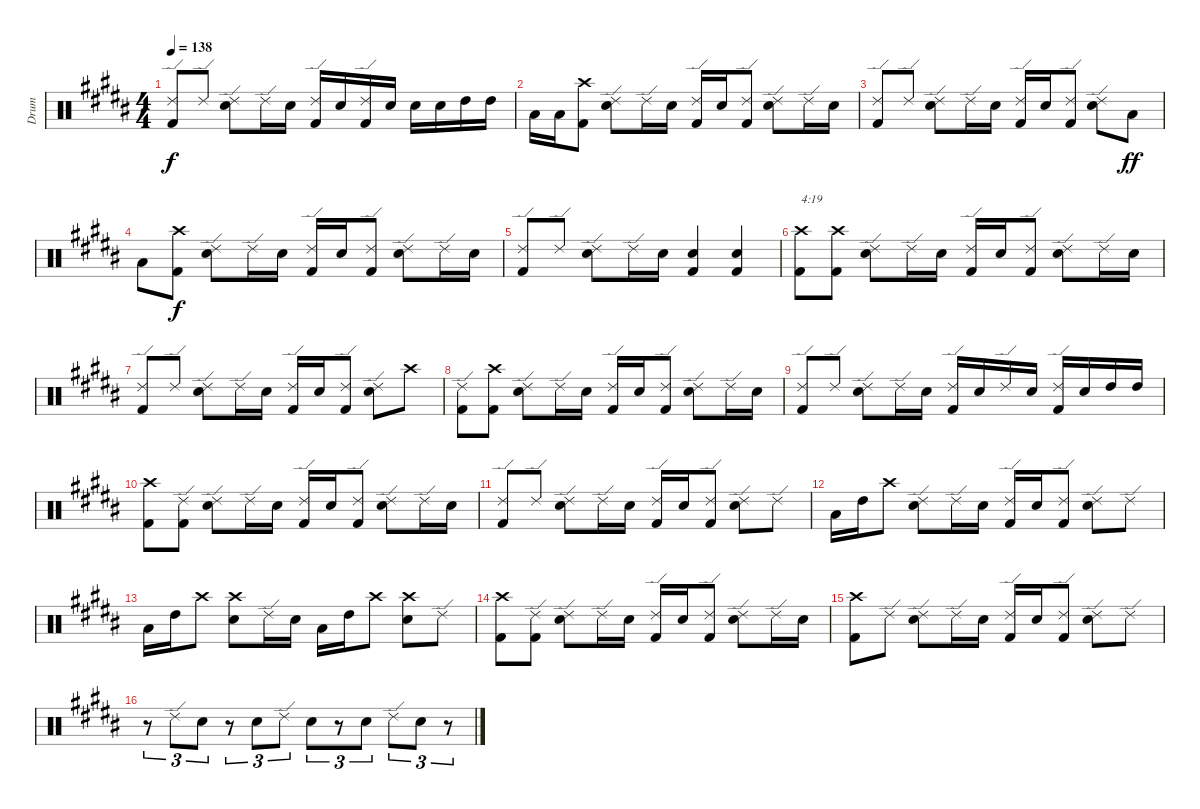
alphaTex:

\track ("Drum" "Drum") {instrument percussion}
\staff {score}
\articulation defaults
\ts (4 4)
\tempo 138
\clef neutral
\ks g#minor
("Ride (edge) 2" "Kick (hit) 2").8{dy f} "Ride (edge) 2".8 ("Ride (edge) 2" "Electric Snare (hit)").8 "Ride (edge) 2".16 "Electric Snare (hit)".16 ("Ride (edge) 2" "Kick (hit) 2").16 "Electric Snare (hit)".16 ("Ride (edge) 2" "Kick (hit) 2").16 "Electric Snare (hit)".16 "Electric Snare (hit)".16 "Electric Snare (hit)".16 "High Tom (hit)".16 "High Tom (hit)".16 |
\ks b "Low Floor Tom (hit)".16 "Low Floor Tom (hit)".16
("Crash high (hit)" "Kick (hit) 2").8 ("Ride (edge) 2" "Electric Snare (hit)").8 "Ride (edge) 2".16 "Electric Snare (hit)".16 ("Ride (edge) 2" "Kick (hit) 2").16 "Electric Snare (hit)".16 ("Ride (edge) 2" "Kick (hit) 2").8 ("Ride (edge) 2" "Electric Snare (hit)").8 "Ride (edge) 2".16 "Electric Snare (hit)".16 |
\ks g#minor
("Ride (edge) 2" "Kick (hit) 2").8 "Ride (edge) 2".8 ("Ride (edge) 2" "Electric Snare (hit)").8 "Ride (edge) 2".16 "Electric Snare (hit)".16 ("Ride (edge) 2" "Kick (hit) 2").16 "Electric Snare (hit)".16 ("Ride (edge) 2" "Kick (hit) 2").8 ("Ride (edge) 2" "Electric Snare (hit)").8 "Low Floor Tom (hit)".8{dy ff} |
"Low Floor Tom (hit)".8 ("Crash high (hit)" "Kick (hit) 2").8{dy f} ("Ride (edge) 2" "Electric Snare (hit)").8 "Ride (edge) 2".16 "Electric Snare (hit)".16 ("Ride (edge) 2" "Kick (hit) 2").16 "Electric Snare (hit)".16 ("Ride (edge) 2" "Kick (hit) 2").8 ("Ride (edge) 2" "Electric Snare (hit)").8 "Ride (edge) 2".16 "Electric Snare (hit)".16 |
("Ride (edge) 2" "Kick (hit) 2").8 "Ride (edge) 2".8 ("Ride (edge) 2" "Electric Snare (hit)").8 "Ride (edge) 2".16 "Electric Snare (hit)".16 ("Electric Snare (hit)" "Kick (hit) 2").4 ("Electric Snare (hit)" "Kick (hit) 2").4 |
\ks b
("Crash high (hit)" "Kick (hit) 2").8{txt "4:19"} ("Crash high (hit)" "Kick (hit) 2").8 ("Ride (edge) 2" "Electric Snare (hit)").8 "Ride (edge) 2".16 "Electric Snare (hit)".16 ("Ride (edge) 2" "Kick (hit) 2").16 "Electric Snare (hit)".16 ("Ride (edge) 2" "Kick (hit) 2").8 ("Ride (edge) 2" "Electric Snare (hit)").8 "Ride (edge) 2".16 "Electric Snare (hit)".16 |
\ks g#minor
("Ride (edge) 2" "Kick (hit) 2").8 "Ride (edge) 2".8 ("Ride (edge) 2" "Electric Snare (hit)").8 "Ride (edge) 2".16 "Electric Snare (hit)".16 ("Ride (edge) 2" "Kick (hit) 2").16 "Electric Snare (hit)".16 ("Ride (edge) 2" "Kick (hit) 2").8 ("Ride (edge) 2" "Electric Snare (hit)").8 "Crash high (hit)".8 |
\ks b
("Ride (edge) 2" "Kick (hit) 2").8 ("Crash high (hit)" "Kick (hit) 2").8 ("Ride (edge) 2" "Electric Snare (hit)").8 "Ride (edge) 2".16 "Electric Snare (hit)".16 ("Ride (edge) 2" "Kick (hit) 2").16 "Electric Snare (hit)".16 ("Ride (edge) 2" "Kick (hit) 2").8 ("Ride (edge) 2" "Electric Snare (hit)").8 "Ride (edge) 2".16 "Electric Snare (hit)".16 |
\ks g#minor
("Ride (edge) 2" "Kick (hit) 2").8 "Ride (edge) 2".8 ("Ride (edge) 2" "Electric Snare (hit)").8 "Ride (edge) 2".16 "Electric Snare (hit)".16 ("Ride (edge) 2" "Kick (hit) 2").16 "Electric Snare (hit)".16 "Ride (edge) 2".16 "Electric Snare (hit)".16 ("Ride (edge) 2" "Kick (hit) 2").16 "Electric Snare (hit)".16 "High Tom (hit)".16 "High Tom (hit)".16 |
\ks b
("Crash high (hit)" "Kick (hit) 2").8 ("Ride (edge) 2" "Kick (hit) 2").8 ("Ride (edge) 2" "Electric Snare (hit)").8 "Ride (edge) 2".16 "Electric Snare (hit)".16 ("Ride (edge) 2" "Kick (hit) 2").16 "Electric Snare (hit)".16 ("Ride (edge) 2" "Kick (hit) 2").8 ("Ride (edge) 2" "Electric Snare (hit)").8 "Ride (edge) 2".16 "Electric Snare (hit)".16 |
\ks g#minor
("Ride (edge) 2" "Kick (hit) 2").8 "Ride (edge) 2".8 ("Ride (edge) 2" "Electric Snare (hit)").8 "Ride (edge) 2".16 "Electric Snare (hit)".16 ("Ride (edge) 2" "Kick (hit) 2").16 "Electric Snare (hit)".16 ("Ride (edge) 2" "Kick (hit) 2").8 ("Ride (edge) 2" "Electric Snare (hit)").8 "Ride (edge) 2".8 |
\ks b "Low Floor Tom (hit)".16 "High Tom (hit)".16 "Crash high (hit)".8
("Ride (edge) 2" "Electric Snare (hit)").8 "Ride (edge) 2".16 "Electric Snare (hit)".16 ("Ride (edge) 2" "Kick (hit) 2").16 "Electric Snare (hit)".16 ("Ride (edge) 2" "Kick (hit) 2").8 ("Ride (edge) 2" "Electric Snare (hit)").8 "Ride (edge) 2".8 |
\ks g#minor "Low Floor Tom (hit)".16 "High Tom (hit)".16 "Crash high (hit)".8
("Crash high (hit)" "Electric Snare (hit)").8 "Ride (edge) 2".16 "Electric Snare (hit)".16 "Low Floor Tom (hit)".16 "High Tom (hit)".16 "Crash high (hit)".8 ("Crash high (hit)" "Electric Snare (hit)").8 "Ride (edge) 2".8 |
\ks b
("Crash high (hit)" "Kick (hit) 2").8 ("Ride (edge) 2" "Kick (hit) 2").8 ("Ride (edge) 2" "Electric Snare (hit)").8 "Ride (edge) 2".16 "Electric Snare (hit)".16 ("Ride (edge) 2" "Kick (hit) 2").16 "Electric Snare (hit)".16 ("Ride (edge) 2" "Kick (hit) 2").8 ("Ride (edge) 2" "Electric Snare (hit)").8 "Ride (edge) 2".16 "Electric Snare (hit)".16 |
\ks g#minor
("Crash high (hit)" "Kick (hit) 2").8 "Ride (edge) 2".8 ("Ride (edge) 2" "Electric Snare (hit)").8 "Ride (edge) 2".16 "Electric Snare (hit)".16 ("Ride (edge) 2" "Kick (hit) 2").16 "Electric Snare (hit)".16 ("Ride (edge) 2" "Kick (hit) 2").8 ("Ride (edge) 2" "Electric Snare (hit)").8 "Ride (edge) 2".8 |
\ks b
r.8{tu (3 2)} "Ride (edge) 2".8{tu (3 2)} "Electric Snare (hit)".8{tu (3 2)} r.8{tu (3 2)} "Electric Snare (hit)".8{tu (3 2)} "Ride (edge) 2".8{tu (3 2)} "Electric Snare (hit)".8{tu (3 2)} r.8{tu (3 2)} "Electric Snare (hit)".8{tu (3 2)} "Ride (edge) 2".8{tu (3 2)} "Electric Snare (hit)".8{tu (3 2)} r.8{tu (3 2)}
